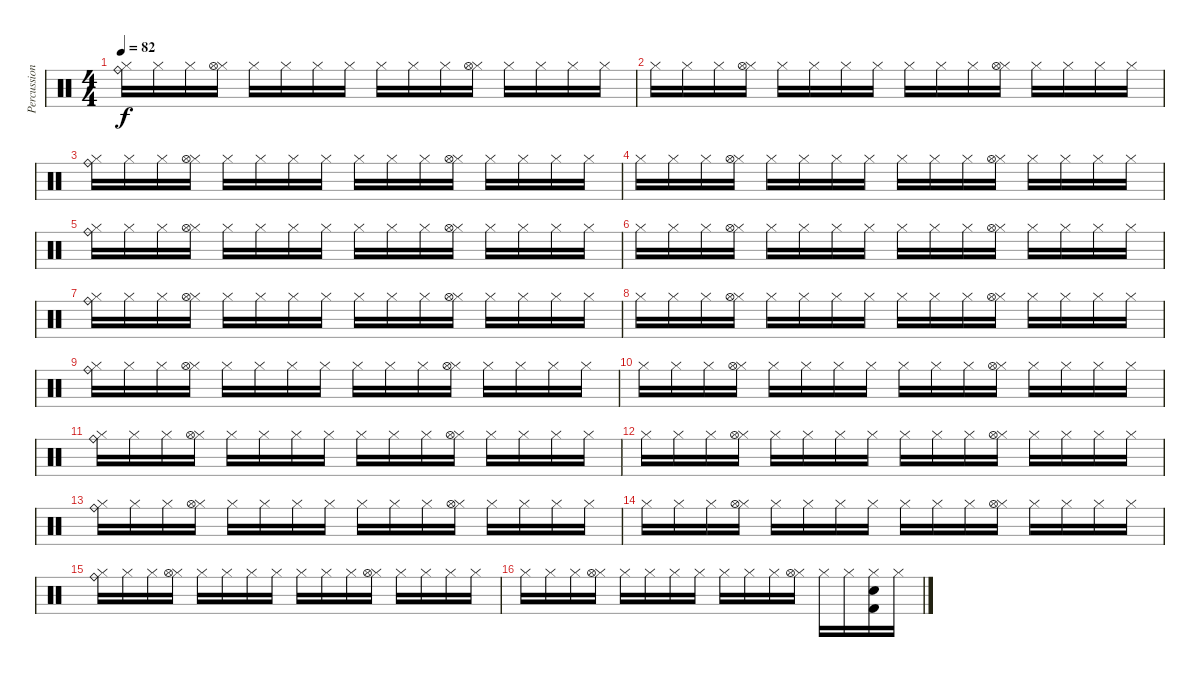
\track ("Percussions" "Percussion") {instrument percussion}
\staff {score}
\articulation defaults
\ts (4 4)
\tempo 82
\clef neutral
\ks c
("Ride (bell)" "Hi-Hat (closed)").16{dy f} "Hi-Hat (closed)".16 "Hi-Hat (closed)".16 ("Hi-Hat (closed)" "Hi-Hat (open)").16 "Hi-Hat (closed)".16 "Hi-Hat (closed)".16 "Hi-Hat (closed)".16 "Hi-Hat (closed)".16 "Hi-Hat (closed)".16 "Hi-Hat (closed)".16 "Hi-Hat (closed)".16 ("Hi-Hat (closed)" "Hi-Hat (open)").16 "Hi-Hat (closed)".16 "Hi-Hat (closed)".16 "Hi-Hat (closed)".16 "Hi-Hat (closed)".16 |
"Hi-Hat (closed)".16 "Hi-Hat (closed)".16 "Hi-Hat (closed)".16 ("Hi-Hat (closed)" "Hi-Hat (open)").16 "Hi-Hat (closed)".16 "Hi-Hat (closed)".16 "Hi-Hat (closed)".16 "Hi-Hat (closed)".16 "Hi-Hat (closed)".16 "Hi-Hat (closed)".16 "Hi-Hat (closed)".16 ("Hi-Hat (closed)" "Hi-Hat (open)").16 "Hi-Hat (closed)".16 "Hi-Hat (closed)".16 "Hi-Hat (closed)".16 "Hi-Hat (closed)".16 |
("Ride (bell)" "Hi-Hat (closed)").16 "Hi-Hat (closed)".16 "Hi-Hat (closed)".16 ("Hi-Hat (closed)" "Hi-Hat (open)").16 "Hi-Hat (closed)".16 "Hi-Hat (closed)".16 "Hi-Hat (closed)".16 "Hi-Hat (closed)".16 "Hi-Hat (closed)".16 "Hi-Hat (closed)".16 "Hi-Hat (closed)".16 ("Hi-Hat (closed)" "Hi-Hat (open)").16 "Hi-Hat (closed)".16 "Hi-Hat (closed)".16 "Hi-Hat (closed)".16 "Hi-Hat (closed)".16 |
"Hi-Hat (closed)".16 "Hi-Hat (closed)".16 "Hi-Hat (closed)".16 ("Hi-Hat (closed)" "Hi-Hat (open)").16 "Hi-Hat (closed)".16 "Hi-Hat (closed)".16 "Hi-Hat (closed)".16 "Hi-Hat (closed)".16 "Hi-Hat (closed)".16 "Hi-Hat (closed)".16 "Hi-Hat (closed)".16 ("Hi-Hat (closed)" "Hi-Hat (open)").16 "Hi-Hat (closed)".16 "Hi-Hat (closed)".16 "Hi-Hat (closed)".16 "Hi-Hat (closed)".16 |
("Ride (bell)" "Hi-Hat (closed)").16 "Hi-Hat (closed)".16 "Hi-Hat (closed)".16 ("Hi-Hat (closed)" "Hi-Hat (open)").16 "Hi-Hat (closed)".16 "Hi-Hat (closed)".16 "Hi-Hat (closed)".16 "Hi-Hat (closed)".16 "Hi-Hat (closed)".16 "Hi-Hat (closed)".16 "Hi-Hat (closed)".16 ("Hi-Hat (closed)" "Hi-Hat (open)").16 "Hi-Hat (closed)".16 "Hi-Hat (closed)".16 "Hi-Hat (closed)".16 "Hi-Hat (closed)".16 |
"Hi-Hat (closed)".16 "Hi-Hat (closed)".16 "Hi-Hat (closed)".16 ("Hi-Hat (closed)" "Hi-Hat (open)").16 "Hi-Hat (closed)".16 "Hi-Hat (closed)".16 "Hi-Hat (closed)".16 "Hi-Hat (closed)".16 "Hi-Hat (closed)".16 "Hi-Hat (closed)".16 "Hi-Hat (closed)".16 ("Hi-Hat (closed)" "Hi-Hat (open)").16 "Hi-Hat (closed)".16 "Hi-Hat (closed)".16 "Hi-Hat (closed)".16 "Hi-Hat (closed)".16 |
("Ride (bell)" "Hi-Hat (closed)").16 "Hi-Hat (closed)".16 "Hi-Hat (closed)".16 ("Hi-Hat (closed)" "Hi-Hat (open)").16 "Hi-Hat (closed)".16 "Hi-Hat (closed)".16 "Hi-Hat (closed)".16 "Hi-Hat (closed)".16 "Hi-Hat (closed)".16 "Hi-Hat (closed)".16 "Hi-Hat (closed)".16 ("Hi-Hat (closed)" "Hi-Hat (open)").16 "Hi-Hat (closed)".16 "Hi-Hat (closed)".16 "Hi-Hat (closed)".16 "Hi-Hat (closed)".16 |
"Hi-Hat (closed)".16 "Hi-Hat (closed)".16 "Hi-Hat (closed)".16 ("Hi-Hat (closed)" "Hi-Hat (open)").16 "Hi-Hat (closed)".16 "Hi-Hat (closed)".16 "Hi-Hat (closed)".16 "Hi-Hat (closed)".16 "Hi-Hat (closed)".16 "Hi-Hat (closed)".16 "Hi-Hat (closed)".16 ("Hi-Hat (closed)" "Hi-Hat (open)").16 "Hi-Hat (closed)".16 "Hi-Hat (closed)".16 "Hi-Hat (closed)".16 "Hi-Hat (closed)".16 |
("Ride (bell)" "Hi-Hat (closed)").16 "Hi-Hat (closed)".16 "Hi-Hat (closed)".16 ("Hi-Hat (closed)" "Hi-Hat (open)").16 "Hi-Hat (closed)".16 "Hi-Hat (closed)".16 "Hi-Hat (closed)".16 "Hi-Hat (closed)".16 "Hi-Hat (closed)".16 "Hi-Hat (closed)".16 "Hi-Hat (closed)".16 ("Hi-Hat (closed)" "Hi-Hat (open)").16 "Hi-Hat (closed)".16 "Hi-Hat (closed)".16 "Hi-Hat (closed)".16 "Hi-Hat (closed)".16 |
"Hi-Hat (closed)".16 "Hi-Hat (closed)".16 "Hi-Hat (closed)".16 ("Hi-Hat (closed)" "Hi-Hat (open)").16 "Hi-Hat (closed)".16 "Hi-Hat (closed)".16 "Hi-Hat (closed)".16 "Hi-Hat (closed)".16 "Hi-Hat (closed)".16 "Hi-Hat (closed)".16 "Hi-Hat (closed)".16 ("Hi-Hat (closed)" "Hi-Hat (open)").16 "Hi-Hat (closed)".16 "Hi-Hat (closed)".16 "Hi-Hat (closed)".16 "Hi-Hat (closed)".16 |
("Ride (bell)" "Hi-Hat (closed)").16 "Hi-Hat (closed)".16 "Hi-Hat (closed)".16 ("Hi-Hat (closed)" "Hi-Hat (open)").16 "Hi-Hat (closed)".16 "Hi-Hat (closed)".16 "Hi-Hat (closed)".16 "Hi-Hat (closed)".16 "Hi-Hat (closed)".16 "Hi-Hat (closed)".16 "Hi-Hat (closed)".16 ("Hi-Hat (closed)" "Hi-Hat (open)").16 "Hi-Hat (closed)".16 "Hi-Hat (closed)".16 "Hi-Hat (closed)".16 "Hi-Hat (closed)".16 |
"Hi-Hat (closed)".16 "Hi-Hat (closed)".16 "Hi-Hat (closed)".16 ("Hi-Hat (closed)" "Hi-Hat (open)").16 "Hi-Hat (closed)".16 "Hi-Hat (closed)".16 "Hi-Hat (closed)".16 "Hi-Hat (closed)".16 "Hi-Hat (closed)".16 "Hi-Hat (closed)".16 "Hi-Hat (closed)".16 ("Hi-Hat (closed)" "Hi-Hat (open)").16 "Hi-Hat (closed)".16 "Hi-Hat (closed)".16 "Hi-Hat (closed)".16 "Hi-Hat (closed)".16 |
("Ride (bell)" "Hi-Hat (closed)").16 "Hi-Hat (closed)".16 "Hi-Hat (closed)".16 ("Hi-Hat (closed)" "Hi-Hat (open)").16 "Hi-Hat (closed)".16 "Hi-Hat (closed)".16 "Hi-Hat (closed)".16 "Hi-Hat (closed)".16 "Hi-Hat (closed)".16 "Hi-Hat (closed)".16 "Hi-Hat (closed)".16 ("Hi-Hat (closed)" "Hi-Hat (open)").16 "Hi-Hat (closed)".16 "Hi-Hat (closed)".16 "Hi-Hat (closed)".16 "Hi-Hat (closed)".16 |
"Hi-Hat (closed)".16 "Hi-Hat (closed)".16 "Hi-Hat (closed)".16 ("Hi-Hat (closed)" "Hi-Hat (open)").16 "Hi-Hat (closed)".16 "Hi-Hat (closed)".16 "Hi-Hat (closed)".16 "Hi-Hat (closed)".16 "Hi-Hat (closed)".16 "Hi-Hat (closed)".16 "Hi-Hat (closed)".16 ("Hi-Hat (closed)" "Hi-Hat (open)").16 "Hi-Hat (closed)".16 "Hi-Hat (closed)".16 "Hi-Hat (closed)".16 "Hi-Hat (closed)".16 |
("Ride (bell)" "Hi-Hat (closed)").16 "Hi-Hat (closed)".16 "Hi-Hat (closed)".16 ("Hi-Hat (closed)" "Hi-Hat (open)").16 "Hi-Hat (closed)".16 "Hi-Hat (closed)".16 "Hi-Hat (closed)".16 "Hi-Hat (closed)".16 "Hi-Hat (closed)".16 "Hi-Hat (closed)".16 "Hi-Hat (closed)".16 ("Hi-Hat (closed)" "Hi-Hat (open)").16 "Hi-Hat (closed)".16 "Hi-Hat (closed)".16 "Hi-Hat (closed)".16 "Hi-Hat (closed)".16 |
"Hi-Hat (closed)".16 "Hi-Hat (closed)".16 "Hi-Hat (closed)".16 ("Hi-Hat (closed)" "Hi-Hat (open)").16 "Hi-Hat (closed)".16 "Hi-Hat (closed)".16 "Hi-Hat (closed)".16 "Hi-Hat (closed)".16 "Hi-Hat (closed)".16 "Hi-Hat (closed)".16 "Hi-Hat (closed)".16 ("Hi-Hat (closed)" "Hi-Hat (open)").16 "Hi-Hat (closed)".16 "Hi-Hat (closed)".16 ("Hi-Hat (closed)" "Electric Snare (hit)" "Kick (hit) 2").16 "Hi-Hat (closed)".16
